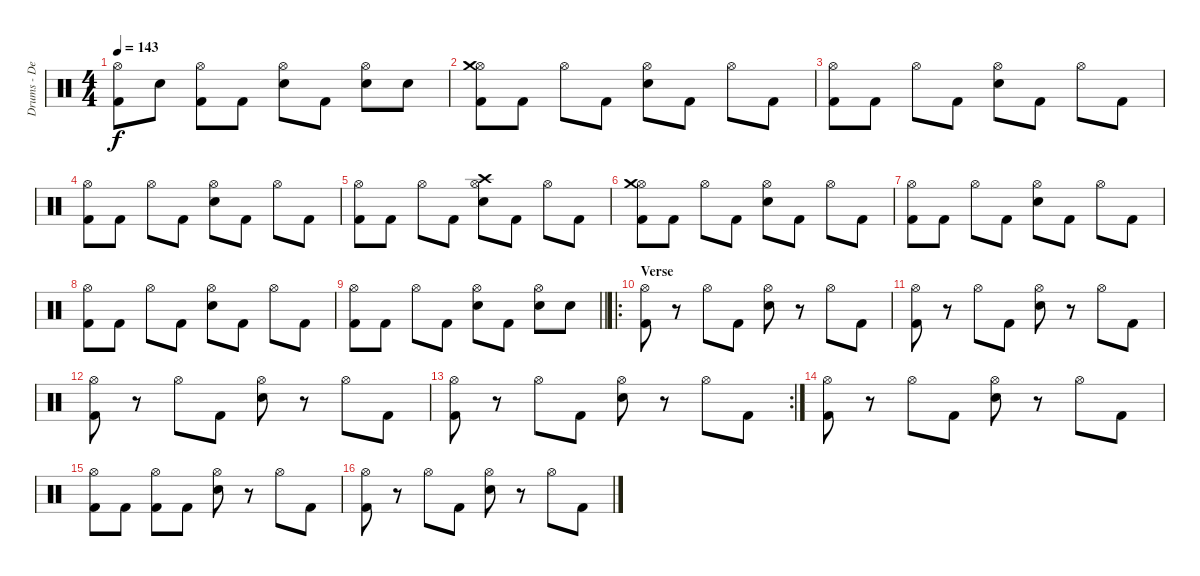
\track ("Drums - Dennis Poschwatta" "Drums - De") {instrument percussion}
\staff {score}
\articulation defaults
\ts (4 4)
\tempo 143
\clef neutral
\ks c
("Hi-Hat (open)" "Kick (hit) 2").8{dy f} "Electric Snare (hit)".8 ("Hi-Hat (open)" "Kick (hit) 2").8 "Kick (hit) 2".8 ("Hi-Hat (open)" "Electric Snare (hit)").8 "Kick (hit) 2".8 ("Hi-Hat (open)" "Electric Snare (hit)").8 "Electric Snare (hit)".8 |
("Hi-Hat (open)" "Crash medium (hit)" "Kick (hit) 2").8 "Kick (hit) 2".8 "Hi-Hat (open)".8 "Kick (hit) 2".8 ("Hi-Hat (open)" "Electric Snare (hit)").8 "Kick (hit) 2".8 "Hi-Hat (open)".8 "Kick (hit) 2".8 |
("Hi-Hat (open)" "Kick (hit) 2").8 "Kick (hit) 2".8 "Hi-Hat (open)".8 "Kick (hit) 2".8 ("Hi-Hat (open)" "Electric Snare (hit)").8 "Kick (hit) 2".8 "Hi-Hat (open)".8 "Kick (hit) 2".8 |
("Hi-Hat (open)" "Kick (hit) 2").8 "Kick (hit) 2".8 "Hi-Hat (open)".8 "Kick (hit) 2".8 ("Hi-Hat (open)" "Electric Snare (hit)").8 "Kick (hit) 2".8 "Hi-Hat (open)".8 "Kick (hit) 2".8 |
("Hi-Hat (open)" "Kick (hit) 2").8 "Kick (hit) 2".8 "Hi-Hat (open)".8 "Kick (hit) 2".8 ("Hi-Hat (open)" "Crash high (hit)" "Electric Snare (hit)").8 "Kick (hit) 2".8 "Hi-Hat (open)".8 "Kick (hit) 2".8 |
("Hi-Hat (open)" "Crash medium (hit)" "Kick (hit) 2").8 "Kick (hit) 2".8 "Hi-Hat (open)".8 "Kick (hit) 2".8 ("Hi-Hat (open)" "Electric Snare (hit)").8 "Kick (hit) 2".8 "Hi-Hat (open)".8 "Kick (hit) 2".8 |
("Hi-Hat (open)" "Kick (hit) 2").8 "Kick (hit) 2".8 "Hi-Hat (open)".8 "Kick (hit) 2".8 ("Hi-Hat (open)" "Electric Snare (hit)").8 "Kick (hit) 2".8 "Hi-Hat (open)".8 "Kick (hit) 2".8 |
("Hi-Hat (open)" "Kick (hit) 2").8 "Kick (hit) 2".8 "Hi-Hat (open)".8 "Kick (hit) 2".8 ("Hi-Hat (open)" "Electric Snare (hit)").8 "Kick (hit) 2".8 "Hi-Hat (open)".8 "Kick (hit) 2".8 |
\barLineRight lightlight
("Hi-Hat (open)" "Kick (hit) 2").8 "Kick (hit) 2".8 "Hi-Hat (open)".8 "Kick (hit) 2".8 ("Hi-Hat (open)" "Electric Snare (hit)").8 "Kick (hit) 2".8 ("Hi-Hat (open)" "Electric Snare (hit)").8 "Electric Snare (hit)".8 |
\ro
\section ("" "Verse")
("Hi-Hat (open)" "Kick (hit) 2").8 r.8 "Hi-Hat (open)".8 "Kick (hit) 2".8 ("Hi-Hat (open)" "Electric Snare (hit)").8 r.8 "Hi-Hat (open)".8 "Kick (hit) 2".8 |
("Hi-Hat (open)" "Kick (hit) 2").8 r.8 "Hi-Hat (open)".8 "Kick (hit) 2".8 ("Hi-Hat (open)" "Electric Snare (hit)").8 r.8 "Hi-Hat (open)".8 "Kick (hit) 2".8 |
("Hi-Hat (open)" "Kick (hit) 2").8 r.8 "Hi-Hat (open)".8 "Kick (hit) 2".8 ("Hi-Hat (open)" "Electric Snare (hit)").8 r.8 "Hi-Hat (open)".8 "Kick (hit) 2".8 |
\rc 2
("Hi-Hat (open)" "Kick (hit) 2").8 r.8 "Hi-Hat (open)".8 "Kick (hit) 2".8 ("Hi-Hat (open)" "Electric Snare (hit)").8 r.8 "Hi-Hat (open)".8 "Kick (hit) 2".8 |
("Hi-Hat (open)" "Kick (hit) 2").8 r.8 "Hi-Hat (open)".8 "Kick (hit) 2".8 ("Hi-Hat (open)" "Electric Snare (hit)").8 r.8 "Hi-Hat (open)".8 "Kick (hit) 2".8 |
("Hi-Hat (open)" "Kick (hit) 2").8 "Kick (hit) 2".8 ("Hi-Hat (open)" "Kick (hit) 2").8 "Kick (hit) 2".8 ("Hi-Hat (open)" "Electric Snare (hit)").8 r.8 "Hi-Hat (open)".8 "Kick (hit) 2".8 |
("Hi-Hat (open)" "Kick (hit) 2").8 r.8 "Hi-Hat (open)".8 "Kick (hit) 2".8 ("Hi-Hat (open)" "Electric Snare (hit)").8 r.8 "Hi-Hat (open)".8 "Kick (hit) 2".8
